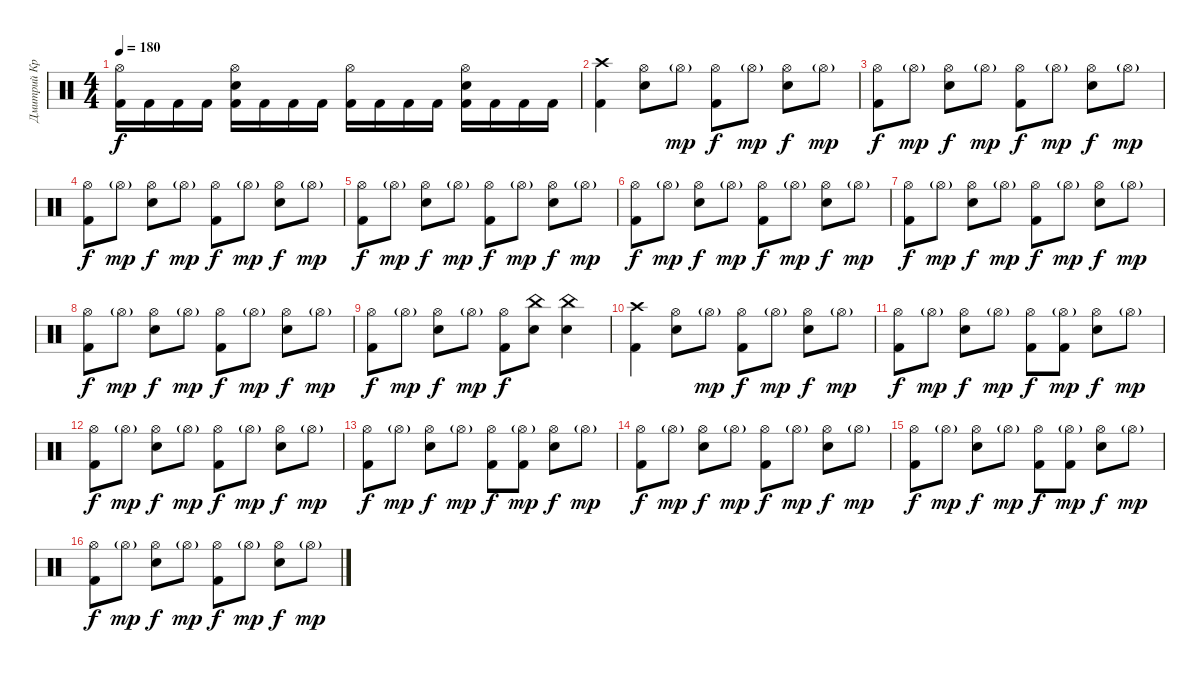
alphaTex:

\track ("Дмитрий Кривенков" "Дмитрий Кр") {instrument percussion}
\staff {score}
\articulation defaults
\ts (4 4)
\tempo 180
\clef neutral
\ks c
("Hi-Hat (open)" "Kick (hit) 2").16{dy f} "Kick (hit) 2".16 "Kick (hit) 2".16 "Kick (hit) 2".16 ("Hi-Hat (open)" "Electric Snare (hit)" "Kick (hit) 2").16 "Kick (hit) 2".16 "Kick (hit) 2".16 "Kick (hit) 2".16 ("Hi-Hat (open)" "Kick (hit) 2").16 "Kick (hit) 2".16 "Kick (hit) 2".16 "Kick (hit) 2".16 ("Hi-Hat (open)" "Electric Snare (hit)" "Kick (hit) 2").16 "Kick (hit) 2".16 "Kick (hit) 2".16 "Kick (hit) 2".16 |
("Crash high (hit)" "Kick (hit) 2").4 ("Hi-Hat (open)" "Electric Snare (hit)").8 "Hi-Hat (open)"{g}.8{dy mp} ("Hi-Hat (open)" "Kick (hit) 2").8{dy f} "Hi-Hat (open)"{g}.8{dy mp} ("Hi-Hat (open)" "Electric Snare (hit)").8{dy f} "Hi-Hat (open)"{g}.8{dy mp} |
("Hi-Hat (open)" "Kick (hit) 2").8{dy f} "Hi-Hat (open)"{g}.8{dy mp} ("Hi-Hat (open)" "Electric Snare (hit)").8{dy f} "Hi-Hat (open)"{g}.8{dy mp} ("Hi-Hat (open)" "Kick (hit) 2").8{dy f} "Hi-Hat (open)"{g}.8{dy mp} ("Hi-Hat (open)" "Electric Snare (hit)").8{dy f} "Hi-Hat (open)"{g}.8{dy mp} |
("Hi-Hat (open)" "Kick (hit) 2").8{dy f} "Hi-Hat (open)"{g}.8{dy mp} ("Hi-Hat (open)" "Electric Snare (hit)").8{dy f} "Hi-Hat (open)"{g}.8{dy mp} ("Hi-Hat (open)" "Kick (hit) 2").8{dy f} "Hi-Hat (open)"{g}.8{dy mp} ("Hi-Hat (open)" "Electric Snare (hit)").8{dy f} "Hi-Hat (open)"{g}.8{dy mp} |
("Hi-Hat (open)" "Kick (hit) 2").8{dy f} "Hi-Hat (open)"{g}.8{dy mp} ("Hi-Hat (open)" "Electric Snare (hit)").8{dy f} "Hi-Hat (open)"{g}.8{dy mp} ("Hi-Hat (open)" "Kick (hit) 2").8{dy f} "Hi-Hat (open)"{g}.8{dy mp} ("Hi-Hat (open)" "Electric Snare (hit)").8{dy f} "Hi-Hat (open)"{g}.8{dy mp} |
("Hi-Hat (open)" "Kick (hit) 2").8{dy f} "Hi-Hat (open)"{g}.8{dy mp} ("Hi-Hat (open)" "Electric Snare (hit)").8{dy f} "Hi-Hat (open)"{g}.8{dy mp} ("Hi-Hat (open)" "Kick (hit) 2").8{dy f} "Hi-Hat (open)"{g}.8{dy mp} ("Hi-Hat (open)" "Electric Snare (hit)").8{dy f} "Hi-Hat (open)"{g}.8{dy mp} |
("Hi-Hat (open)" "Kick (hit) 2").8{dy f} "Hi-Hat (open)"{g}.8{dy mp} ("Hi-Hat (open)" "Electric Snare (hit)").8{dy f} "Hi-Hat (open)"{g}.8{dy mp} ("Hi-Hat (open)" "Kick (hit) 2").8{dy f} "Hi-Hat (open)"{g}.8{dy mp} ("Hi-Hat (open)" "Electric Snare (hit)").8{dy f} "Hi-Hat (open)"{g}.8{dy mp} |
("Hi-Hat (open)" "Kick (hit) 2").8{dy f} "Hi-Hat (open)"{g}.8{dy mp} ("Hi-Hat (open)" "Electric Snare (hit)").8{dy f} "Hi-Hat (open)"{g}.8{dy mp} ("Hi-Hat (open)" "Kick (hit) 2").8{dy f} "Hi-Hat (open)"{g}.8{dy mp} ("Hi-Hat (open)" "Electric Snare (hit)").8{dy f} "Hi-Hat (open)"{g}.8{dy mp} |
("Hi-Hat (open)" "Kick (hit) 2").8{dy f} "Hi-Hat (open)"{g}.8{dy mp} ("Hi-Hat (open)" "Electric Snare (hit)").8{dy f} "Hi-Hat (open)"{g}.8{dy mp} ("Hi-Hat (open)" "Kick (hit) 2").8{dy f} ("China (hit)" "Electric Snare (hit)").8 ("China (hit)" "Electric Snare (hit)").4 |
("Crash high (hit)" "Kick (hit) 2").4 ("Hi-Hat (open)" "Electric Snare (hit)").8 "Hi-Hat (open)"{g}.8{dy mp} ("Hi-Hat (open)" "Kick (hit) 2").8{dy f} "Hi-Hat (open)"{g}.8{dy mp} ("Hi-Hat (open)" "Electric Snare (hit)").8{dy f} "Hi-Hat (open)"{g}.8{dy mp} |
("Hi-Hat (open)" "Kick (hit) 2").8{dy f} "Hi-Hat (open)"{g}.8{dy mp} ("Hi-Hat (open)" "Electric Snare (hit)").8{dy f} "Hi-Hat (open)"{g}.8{dy mp} ("Hi-Hat (open)" "Kick (hit) 2").8{dy f} ("Hi-Hat (open)"{g} "Kick (hit) 2").8{dy mp} ("Hi-Hat (open)" "Electric Snare (hit)").8{dy f} "Hi-Hat (open)"{g}.8{dy mp} |
("Hi-Hat (open)" "Kick (hit) 2").8{dy f} "Hi-Hat (open)"{g}.8{dy mp} ("Hi-Hat (open)" "Electric Snare (hit)").8{dy f} "Hi-Hat (open)"{g}.8{dy mp} ("Hi-Hat (open)" "Kick (hit) 2").8{dy f} "Hi-Hat (open)"{g}.8{dy mp} ("Hi-Hat (open)" "Electric Snare (hit)").8{dy f} "Hi-Hat (open)"{g}.8{dy mp} |
("Hi-Hat (open)" "Kick (hit) 2").8{dy f} "Hi-Hat (open)"{g}.8{dy mp} ("Hi-Hat (open)" "Electric Snare (hit)").8{dy f} "Hi-Hat (open)"{g}.8{dy mp} ("Hi-Hat (open)" "Kick (hit) 2").8{dy f} ("Hi-Hat (open)"{g} "Kick (hit) 2").8{dy mp} ("Hi-Hat (open)" "Electric Snare (hit)").8{dy f} "Hi-Hat (open)"{g}.8{dy mp} |
("Hi-Hat (open)" "Kick (hit) 2").8{dy f} "Hi-Hat (open)"{g}.8{dy mp} ("Hi-Hat (open)" "Electric Snare (hit)").8{dy f} "Hi-Hat (open)"{g}.8{dy mp} ("Hi-Hat (open)" "Kick (hit) 2").8{dy f} "Hi-Hat (open)"{g}.8{dy mp} ("Hi-Hat (open)" "Electric Snare (hit)").8{dy f} "Hi-Hat (open)"{g}.8{dy mp} |
("Hi-Hat (open)" "Kick (hit) 2").8{dy f} "Hi-Hat (open)"{g}.8{dy mp} ("Hi-Hat (open)" "Electric Snare (hit)").8{dy f} "Hi-Hat (open)"{g}.8{dy mp} ("Hi-Hat (open)" "Kick (hit) 2").8{dy f} ("Hi-Hat (open)"{g} "Kick (hit) 2").8{dy mp} ("Hi-Hat (open)" "Electric Snare (hit)").8{dy f} "Hi-Hat (open)"{g}.8{dy mp} |
("Hi-Hat (open)" "Kick (hit) 2").8{dy f} "Hi-Hat (open)"{g}.8{dy mp} ("Hi-Hat (open)" "Electric Snare (hit)").8{dy f} "Hi-Hat (open)"{g}.8{dy mp} ("Hi-Hat (open)" "Kick (hit) 2").8{dy f} "Hi-Hat (open)"{g}.8{dy mp} ("Hi-Hat (open)" "Electric Snare (hit)").8{dy f} "Hi-Hat (open)"{g}.8{dy mp}
